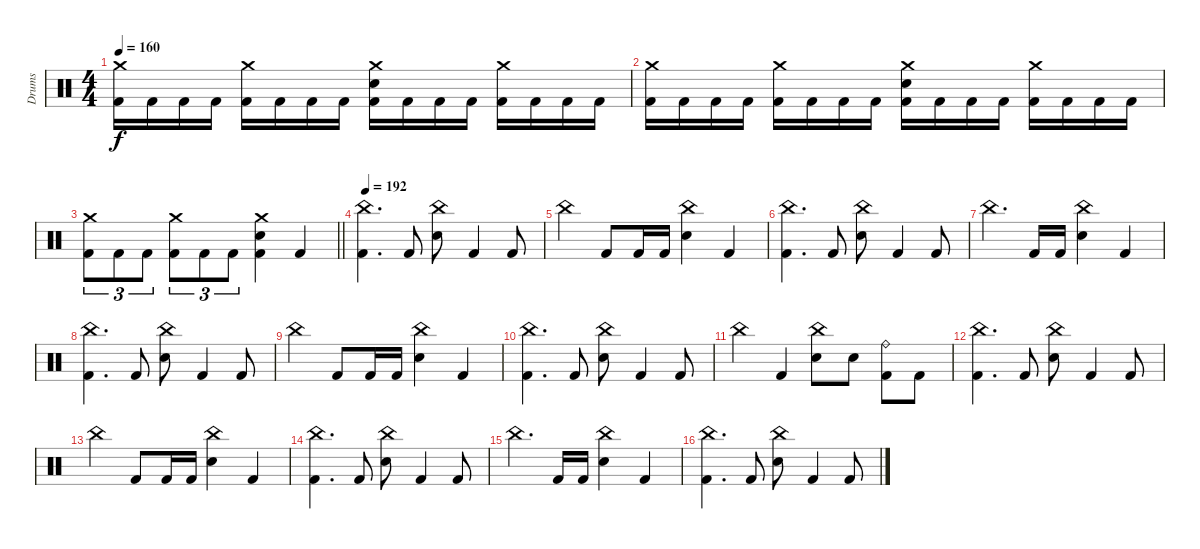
\track ("Drums" "Drums") {instrument percussion}
\staff {score}
\articulation defaults
\ts (4 4)
\tempo 160
\clef neutral
\ks c
("Crash medium (hit)" "Kick (hit) 2").16{dy f} "Kick (hit) 2".16 "Kick (hit) 2".16 "Kick (hit) 2".16 ("Crash medium (hit)" "Kick (hit) 2").16 "Kick (hit) 2".16 "Kick (hit) 2".16 "Kick (hit) 2".16 ("Crash medium (hit)" "Snare (hit) 2" "Kick (hit) 2").16 "Kick (hit) 2".16 "Kick (hit) 2".16 "Kick (hit) 2".16 ("Crash medium (hit)" "Kick (hit) 2").16 "Kick (hit) 2".16 "Kick (hit) 2".16 "Kick (hit) 2".16 |
("Crash medium (hit)" "Kick (hit) 2").16 "Kick (hit) 2".16 "Kick (hit) 2".16 "Kick (hit) 2".16 ("Crash medium (hit)" "Kick (hit) 2").16 "Kick (hit) 2".16 "Kick (hit) 2".16 "Kick (hit) 2".16 ("Crash medium (hit)" "Snare (hit) 2" "Kick (hit) 2").16 "Kick (hit) 2".16 "Kick (hit) 2".16 "Kick (hit) 2".16 ("Crash medium (hit)" "Kick (hit) 2").16 "Kick (hit) 2".16 "Kick (hit) 2".16 "Kick (hit) 2".16 |
\barLineRight lightlight
("Crash medium (hit)" "Kick (hit) 2").8{tu (3 2)} "Kick (hit) 2".8{tu (3 2)} "Kick (hit) 2".8{tu (3 2)} ("Crash medium (hit)" "Kick (hit) 2").8{tu (3 2)} "Kick (hit) 2".8{tu (3 2)} "Kick (hit) 2".8{tu (3 2)} ("Crash medium (hit)" "Snare (hit) 2" "Kick (hit) 2").4 "Kick (hit) 2".4 |
\section ("" "")
\tempo 192
("China (hit)" "Kick (hit) 2").4{d} "Kick (hit) 2".8 ("China (hit)" "Snare (hit) 2").8 "Kick (hit) 2".4 "Kick (hit) 2".8 |
"China (hit)".4 "Kick (hit) 2".8 "Kick (hit) 2".16 "Kick (hit) 2".16 ("China (hit)" "Snare (hit) 2").4 "Kick (hit) 2".4 |
("China (hit)" "Kick (hit) 2").4{d} "Kick (hit) 2".8 ("China (hit)" "Snare (hit) 2").8 "Kick (hit) 2".4 "Kick (hit) 2".8 |
"China (hit)".4{d} "Kick (hit) 2".16 "Kick (hit) 2".16 ("China (hit)" "Snare (hit) 2").4 "Kick (hit) 2".4 |
("China (hit)" "Kick (hit) 2").4{d} "Kick (hit) 2".8 ("China (hit)" "Snare (hit) 2").8 "Kick (hit) 2".4 "Kick (hit) 2".8 |
"China (hit)".4 "Kick (hit) 2".8 "Kick (hit) 2".16 "Kick (hit) 2".16 ("China (hit)" "Snare (hit) 2").4 "Kick (hit) 2".4 |
("China (hit)" "Kick (hit) 2").4{d} "Kick (hit) 2".8 ("China (hit)" "Snare (hit) 2").8 "Kick (hit) 2".4 "Kick (hit) 2".8 |
"China (hit)".4 "Kick (hit) 2".4 ("China (hit)" "Snare (hit) 2").8 "Snare (hit) 2".8 ("Ride (bell)" "Kick (hit) 2").8 "Kick (hit) 2".8 |
("China (hit)" "Kick (hit) 2").4{d} "Kick (hit) 2".8 ("China (hit)" "Snare (hit) 2").8 "Kick (hit) 2".4 "Kick (hit) 2".8 |
"China (hit)".4 "Kick (hit) 2".8 "Kick (hit) 2".16 "Kick (hit) 2".16 ("China (hit)" "Snare (hit) 2").4 "Kick (hit) 2".4 |
("China (hit)" "Kick (hit) 2").4{d} "Kick (hit) 2".8 ("China (hit)" "Snare (hit) 2").8 "Kick (hit) 2".4 "Kick (hit) 2".8 |
"China (hit)".4{d} "Kick (hit) 2".16 "Kick (hit) 2".16 ("China (hit)" "Snare (hit) 2").4 "Kick (hit) 2".4 |
("China (hit)" "Kick (hit) 2").4{d} "Kick (hit) 2".8 ("China (hit)" "Snare (hit) 2").8 "Kick (hit) 2".4 "Kick (hit) 2".8
